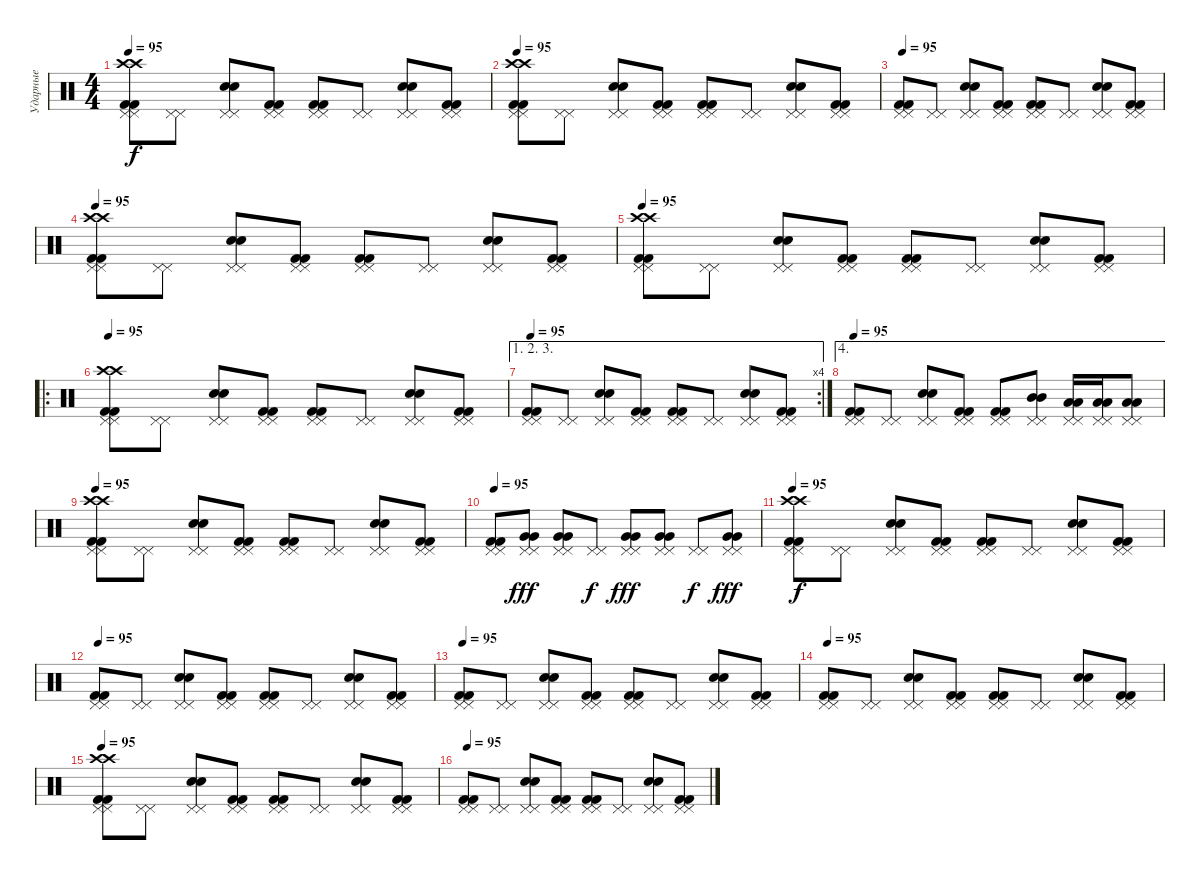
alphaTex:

\track ("Ударные" "Ударные") {instrument percussion}
\staff {score}
\articulation defaults
\ts (4 4)
\tempo 95
\clef neutral
\ks c
("Kick (hit) 2" "Kick (hit) 2" "Pedal Hi-Hat (hit)" "Pedal Hi-Hat (hit)" "Crash high (hit)" "Crash high (hit)").8{dy f} ("Pedal Hi-Hat (hit)" "Pedal Hi-Hat (hit)").8 ("Pedal Hi-Hat (hit)" "Pedal Hi-Hat (hit)" "Electric Snare (hit)" "Electric Snare (hit)").8 ("Pedal Hi-Hat (hit)" "Pedal Hi-Hat (hit)" "Kick (hit) 2" "Kick (hit) 2").8 ("Pedal Hi-Hat (hit)" "Pedal Hi-Hat (hit)" "Kick (hit) 2" "Kick (hit) 2").8 ("Pedal Hi-Hat (hit)" "Pedal Hi-Hat (hit)").8 ("Pedal Hi-Hat (hit)" "Pedal Hi-Hat (hit)" "Electric Snare (hit)" "Electric Snare (hit)").8 ("Pedal Hi-Hat (hit)" "Pedal Hi-Hat (hit)" "Kick (hit) 2" "Kick (hit) 2").8 |
\tempo 95
("Kick (hit) 2" "Kick (hit) 2" "Pedal Hi-Hat (hit)" "Pedal Hi-Hat (hit)" "Crash high (hit)" "Crash high (hit)").8 ("Pedal Hi-Hat (hit)" "Pedal Hi-Hat (hit)").8 ("Pedal Hi-Hat (hit)" "Pedal Hi-Hat (hit)" "Electric Snare (hit)" "Electric Snare (hit)").8 ("Pedal Hi-Hat (hit)" "Pedal Hi-Hat (hit)" "Kick (hit) 2" "Kick (hit) 2").8 ("Pedal Hi-Hat (hit)" "Pedal Hi-Hat (hit)" "Kick (hit) 2" "Kick (hit) 2").8 ("Pedal Hi-Hat (hit)" "Pedal Hi-Hat (hit)").8 ("Pedal Hi-Hat (hit)" "Pedal Hi-Hat (hit)" "Electric Snare (hit)" "Electric Snare (hit)").8 ("Pedal Hi-Hat (hit)" "Pedal Hi-Hat (hit)" "Kick (hit) 2" "Kick (hit) 2").8 |
\tempo 95
("Kick (hit) 2" "Kick (hit) 2" "Pedal Hi-Hat (hit)" "Pedal Hi-Hat (hit)").8 ("Pedal Hi-Hat (hit)" "Pedal Hi-Hat (hit)").8 ("Pedal Hi-Hat (hit)" "Pedal Hi-Hat (hit)" "Electric Snare (hit)" "Electric Snare (hit)").8 ("Pedal Hi-Hat (hit)" "Pedal Hi-Hat (hit)" "Kick (hit) 2" "Kick (hit) 2").8 ("Pedal Hi-Hat (hit)" "Pedal Hi-Hat (hit)" "Kick (hit) 2" "Kick (hit) 2").8 ("Pedal Hi-Hat (hit)" "Pedal Hi-Hat (hit)").8 ("Pedal Hi-Hat (hit)" "Pedal Hi-Hat (hit)" "Electric Snare (hit)" "Electric Snare (hit)").8 ("Pedal Hi-Hat (hit)" "Pedal Hi-Hat (hit)" "Kick (hit) 2" "Kick (hit) 2").8 |
\tempo 95
("Kick (hit) 2" "Kick (hit) 2" "Pedal Hi-Hat (hit)" "Pedal Hi-Hat (hit)" "Crash high (hit)" "Crash high (hit)").8 ("Pedal Hi-Hat (hit)" "Pedal Hi-Hat (hit)").8 ("Pedal Hi-Hat (hit)" "Pedal Hi-Hat (hit)" "Electric Snare (hit)" "Electric Snare (hit)").8 ("Pedal Hi-Hat (hit)" "Pedal Hi-Hat (hit)" "Kick (hit) 2" "Kick (hit) 2").8 ("Pedal Hi-Hat (hit)" "Pedal Hi-Hat (hit)" "Kick (hit) 2" "Kick (hit) 2").8 ("Pedal Hi-Hat (hit)" "Pedal Hi-Hat (hit)").8 ("Pedal Hi-Hat (hit)" "Pedal Hi-Hat (hit)" "Electric Snare (hit)" "Electric Snare (hit)").8 ("Pedal Hi-Hat (hit)" "Pedal Hi-Hat (hit)" "Kick (hit) 2" "Kick (hit) 2").8 |
\tempo 95
("Kick (hit) 2" "Kick (hit) 2" "Pedal Hi-Hat (hit)" "Pedal Hi-Hat (hit)" "Crash high (hit)" "Crash high (hit)").8 ("Pedal Hi-Hat (hit)" "Pedal Hi-Hat (hit)").8 ("Pedal Hi-Hat (hit)" "Pedal Hi-Hat (hit)" "Electric Snare (hit)" "Electric Snare (hit)").8 ("Pedal Hi-Hat (hit)" "Pedal Hi-Hat (hit)" "Kick (hit) 2" "Kick (hit) 2").8 ("Pedal Hi-Hat (hit)" "Pedal Hi-Hat (hit)" "Kick (hit) 2" "Kick (hit) 2").8 ("Pedal Hi-Hat (hit)" "Pedal Hi-Hat (hit)").8 ("Pedal Hi-Hat (hit)" "Pedal Hi-Hat (hit)" "Electric Snare (hit)" "Electric Snare (hit)").8 ("Pedal Hi-Hat (hit)" "Pedal Hi-Hat (hit)" "Kick (hit) 2" "Kick (hit) 2").8 |
\ro
\tempo 95
("Kick (hit) 2" "Kick (hit) 2" "Pedal Hi-Hat (hit)" "Pedal Hi-Hat (hit)" "Crash high (hit)" "Crash high (hit)").8 ("Pedal Hi-Hat (hit)" "Pedal Hi-Hat (hit)").8 ("Pedal Hi-Hat (hit)" "Pedal Hi-Hat (hit)" "Electric Snare (hit)" "Electric Snare (hit)").8 ("Pedal Hi-Hat (hit)" "Pedal Hi-Hat (hit)" "Kick (hit) 2" "Kick (hit) 2").8 ("Pedal Hi-Hat (hit)" "Pedal Hi-Hat (hit)" "Kick (hit) 2" "Kick (hit) 2").8 ("Pedal Hi-Hat (hit)" "Pedal Hi-Hat (hit)").8 ("Pedal Hi-Hat (hit)" "Pedal Hi-Hat (hit)" "Electric Snare (hit)" "Electric Snare (hit)").8 ("Pedal Hi-Hat (hit)" "Pedal Hi-Hat (hit)" "Kick (hit) 2" "Kick (hit) 2").8 |
\ae (1 2 3)
\rc 4
\tempo 95
("Kick (hit) 2" "Kick (hit) 2" "Pedal Hi-Hat (hit)" "Pedal Hi-Hat (hit)").8 ("Pedal Hi-Hat (hit)" "Pedal Hi-Hat (hit)").8 ("Pedal Hi-Hat (hit)" "Pedal Hi-Hat (hit)" "Electric Snare (hit)" "Electric Snare (hit)").8 ("Pedal Hi-Hat (hit)" "Pedal Hi-Hat (hit)" "Kick (hit) 2" "Kick (hit) 2").8 ("Pedal Hi-Hat (hit)" "Pedal Hi-Hat (hit)" "Kick (hit) 2" "Kick (hit) 2").8 ("Pedal Hi-Hat (hit)" "Pedal Hi-Hat (hit)").8 ("Pedal Hi-Hat (hit)" "Pedal Hi-Hat (hit)" "Electric Snare (hit)" "Electric Snare (hit)").8 ("Pedal Hi-Hat (hit)" "Pedal Hi-Hat (hit)" "Kick (hit) 2" "Kick (hit) 2").8 |
\ae 4
\tempo 95
("Kick (hit) 2" "Kick (hit) 2" "Pedal Hi-Hat (hit)" "Pedal Hi-Hat (hit)").8 ("Pedal Hi-Hat (hit)" "Pedal Hi-Hat (hit)").8 ("Pedal Hi-Hat (hit)" "Pedal Hi-Hat (hit)" "Electric Snare (hit)" "Electric Snare (hit)").8 ("Pedal Hi-Hat (hit)" "Pedal Hi-Hat (hit)" "Kick (hit) 2" "Kick (hit) 2").8 ("Pedal Hi-Hat (hit)" "Pedal Hi-Hat (hit)" "Kick (hit) 2" "Kick (hit) 2").8 ("Pedal Hi-Hat (hit)" "Pedal Hi-Hat (hit)" "Mid Tom (hit)" "Mid Tom (hit)").8 ("Pedal Hi-Hat (hit)" "Pedal Hi-Hat (hit)" "Low Tom (hit)" "Low Tom (hit)").16 ("Pedal Hi-Hat (hit)" "Pedal Hi-Hat (hit)" "Low Tom (hit)" "Low Tom (hit)").16 ("Pedal Hi-Hat (hit)" "Pedal Hi-Hat (hit)" "Low Tom (hit)" "Low Tom (hit)").8 |
\tempo 95
("Kick (hit) 2" "Kick (hit) 2" "Pedal Hi-Hat (hit)" "Pedal Hi-Hat (hit)" "Crash high (hit)" "Crash high (hit)").8 ("Pedal Hi-Hat (hit)" "Pedal Hi-Hat (hit)").8 ("Pedal Hi-Hat (hit)" "Pedal Hi-Hat (hit)" "Electric Snare (hit)" "Electric Snare (hit)").8 ("Pedal Hi-Hat (hit)" "Pedal Hi-Hat (hit)" "Kick (hit) 2" "Kick (hit) 2").8 ("Pedal Hi-Hat (hit)" "Pedal Hi-Hat (hit)" "Kick (hit) 2" "Kick (hit) 2").8 ("Pedal Hi-Hat (hit)" "Pedal Hi-Hat (hit)").8 ("Pedal Hi-Hat (hit)" "Pedal Hi-Hat (hit)" "Electric Snare (hit)" "Electric Snare (hit)").8 ("Pedal Hi-Hat (hit)" "Pedal Hi-Hat (hit)" "Kick (hit) 2" "Kick (hit) 2").8 |
\tempo 95
("Kick (hit) 2" "Kick (hit) 2" "Pedal Hi-Hat (hit)" "Pedal Hi-Hat (hit)").8 ("Pedal Hi-Hat (hit)" "Pedal Hi-Hat (hit)" "Very Low Tom (hit)" "Very Low Tom (hit)").8{dy fff} ("Pedal Hi-Hat (hit)" "Pedal Hi-Hat (hit)" "Very Low Tom (hit)" "Very Low Tom (hit)").8 ("Pedal Hi-Hat (hit)" "Pedal Hi-Hat (hit)").8{dy f} ("Pedal Hi-Hat (hit)" "Pedal Hi-Hat (hit)" "Very Low Tom (hit)" "Very Low Tom (hit)").8{dy fff} ("Pedal Hi-Hat (hit)" "Pedal Hi-Hat (hit)" "Very Low Tom (hit)" "Very Low Tom (hit)").8 ("Pedal Hi-Hat (hit)" "Pedal Hi-Hat (hit)").8{dy f} ("Pedal Hi-Hat (hit)" "Pedal Hi-Hat (hit)" "Very Low Tom (hit)" "Very Low Tom (hit)").8{dy fff} |
\tempo 95
("Kick (hit) 2" "Kick (hit) 2" "Pedal Hi-Hat (hit)" "Pedal Hi-Hat (hit)" "Crash high (hit)" "Crash high (hit)").8{dy f} ("Pedal Hi-Hat (hit)" "Pedal Hi-Hat (hit)").8 ("Pedal Hi-Hat (hit)" "Pedal Hi-Hat (hit)" "Electric Snare (hit)" "Electric Snare (hit)").8 ("Pedal Hi-Hat (hit)" "Pedal Hi-Hat (hit)" "Kick (hit) 2" "Kick (hit) 2").8 ("Pedal Hi-Hat (hit)" "Pedal Hi-Hat (hit)" "Kick (hit) 2" "Kick (hit) 2").8 ("Pedal Hi-Hat (hit)" "Pedal Hi-Hat (hit)").8 ("Pedal Hi-Hat (hit)" "Pedal Hi-Hat (hit)" "Electric Snare (hit)" "Electric Snare (hit)").8 ("Pedal Hi-Hat (hit)" "Pedal Hi-Hat (hit)" "Kick (hit) 2" "Kick (hit) 2").8 |
\tempo 95
("Kick (hit) 2" "Kick (hit) 2" "Pedal Hi-Hat (hit)" "Pedal Hi-Hat (hit)").8 ("Pedal Hi-Hat (hit)" "Pedal Hi-Hat (hit)").8 ("Pedal Hi-Hat (hit)" "Pedal Hi-Hat (hit)" "Electric Snare (hit)" "Electric Snare (hit)").8 ("Pedal Hi-Hat (hit)" "Pedal Hi-Hat (hit)" "Kick (hit) 2" "Kick (hit) 2").8 ("Pedal Hi-Hat (hit)" "Pedal Hi-Hat (hit)" "Kick (hit) 2" "Kick (hit) 2").8 ("Pedal Hi-Hat (hit)" "Pedal Hi-Hat (hit)").8 ("Pedal Hi-Hat (hit)" "Pedal Hi-Hat (hit)" "Electric Snare (hit)" "Electric Snare (hit)").8 ("Pedal Hi-Hat (hit)" "Pedal Hi-Hat (hit)" "Kick (hit) 2" "Kick (hit) 2").8 |
\tempo 95
("Kick (hit) 2" "Kick (hit) 2" "Pedal Hi-Hat (hit)" "Pedal Hi-Hat (hit)").8 ("Pedal Hi-Hat (hit)" "Pedal Hi-Hat (hit)").8 ("Pedal Hi-Hat (hit)" "Pedal Hi-Hat (hit)" "Electric Snare (hit)" "Electric Snare (hit)").8 ("Pedal Hi-Hat (hit)" "Pedal Hi-Hat (hit)" "Kick (hit) 2" "Kick (hit) 2").8 ("Pedal Hi-Hat (hit)" "Pedal Hi-Hat (hit)" "Kick (hit) 2" "Kick (hit) 2").8 ("Pedal Hi-Hat (hit)" "Pedal Hi-Hat (hit)").8 ("Pedal Hi-Hat (hit)" "Pedal Hi-Hat (hit)" "Electric Snare (hit)" "Electric Snare (hit)").8 ("Pedal Hi-Hat (hit)" "Pedal Hi-Hat (hit)" "Kick (hit) 2" "Kick (hit) 2").8 |
\tempo 95
("Kick (hit) 2" "Kick (hit) 2" "Pedal Hi-Hat (hit)" "Pedal Hi-Hat (hit)").8 ("Pedal Hi-Hat (hit)" "Pedal Hi-Hat (hit)").8 ("Pedal Hi-Hat (hit)" "Pedal Hi-Hat (hit)" "Electric Snare (hit)" "Electric Snare (hit)").8 ("Pedal Hi-Hat (hit)" "Pedal Hi-Hat (hit)" "Kick (hit) 2" "Kick (hit) 2").8 ("Pedal Hi-Hat (hit)" "Pedal Hi-Hat (hit)" "Kick (hit) 2" "Kick (hit) 2").8 ("Pedal Hi-Hat (hit)" "Pedal Hi-Hat (hit)").8 ("Pedal Hi-Hat (hit)" "Pedal Hi-Hat (hit)" "Electric Snare (hit)" "Electric Snare (hit)").8 ("Pedal Hi-Hat (hit)" "Pedal Hi-Hat (hit)" "Kick (hit) 2" "Kick (hit) 2").8 |
\tempo 95
("Kick (hit) 2" "Kick (hit) 2" "Pedal Hi-Hat (hit)" "Pedal Hi-Hat (hit)" "Crash high (hit)" "Crash high (hit)").8 ("Pedal Hi-Hat (hit)" "Pedal Hi-Hat (hit)").8 ("Pedal Hi-Hat (hit)" "Pedal Hi-Hat (hit)" "Electric Snare (hit)" "Electric Snare (hit)").8 ("Pedal Hi-Hat (hit)" "Pedal Hi-Hat (hit)" "Kick (hit) 2" "Kick (hit) 2").8 ("Pedal Hi-Hat (hit)" "Pedal Hi-Hat (hit)" "Kick (hit) 2" "Kick (hit) 2").8 ("Pedal Hi-Hat (hit)" "Pedal Hi-Hat (hit)").8 ("Pedal Hi-Hat (hit)" "Pedal Hi-Hat (hit)" "Electric Snare (hit)" "Electric Snare (hit)").8 ("Pedal Hi-Hat (hit)" "Pedal Hi-Hat (hit)" "Kick (hit) 2" "Kick (hit) 2").8 |
\tempo 95
("Kick (hit) 2" "Kick (hit) 2" "Pedal Hi-Hat (hit)" "Pedal Hi-Hat (hit)").8 ("Pedal Hi-Hat (hit)" "Pedal Hi-Hat (hit)").8 ("Pedal Hi-Hat (hit)" "Pedal Hi-Hat (hit)" "Electric Snare (hit)" "Electric Snare (hit)").8 ("Pedal Hi-Hat (hit)" "Pedal Hi-Hat (hit)" "Kick (hit) 2" "Kick (hit) 2").8 ("Pedal Hi-Hat (hit)" "Pedal Hi-Hat (hit)" "Kick (hit) 2" "Kick (hit) 2").8 ("Pedal Hi-Hat (hit)" "Pedal Hi-Hat (hit)").8 ("Pedal Hi-Hat (hit)" "Pedal Hi-Hat (hit)" "Electric Snare (hit)" "Electric Snare (hit)").8 ("Pedal Hi-Hat (hit)" "Pedal Hi-Hat (hit)" "Kick (hit) 2" "Kick (hit) 2").8
